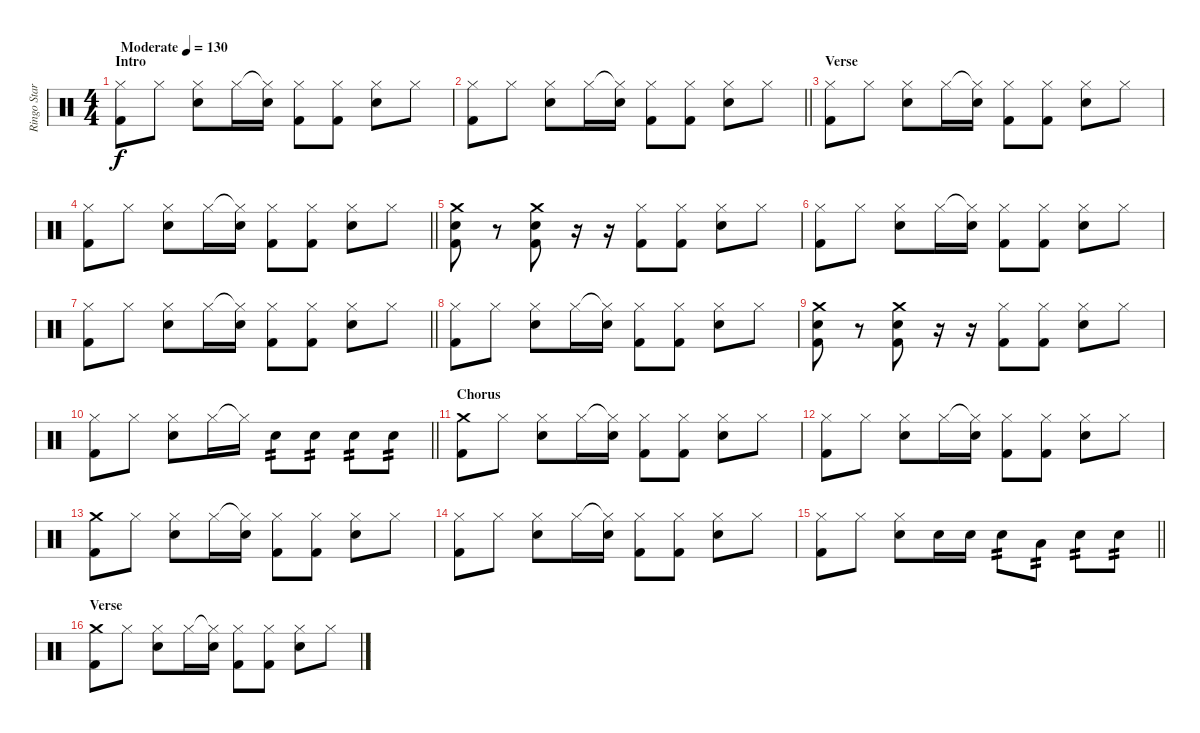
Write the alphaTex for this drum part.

\track ("Ringo Starr" "Ringo Star") {instrument percussion}
\staff {score}
\articulation defaults
\ts (4 4)
\section ("" "Intro")
\tempo (130 "Moderate")
\clef neutral
\ks c
("Hi-Hat (closed)" "Kick (hit) 2").8{dy f} "Hi-Hat (closed)".8 ("Hi-Hat (closed)" "Snare (hit) 2").8 "Hi-Hat (closed)".16 ("Hi-Hat (closed)"{t} "Snare (hit) 2").16 ("Hi-Hat (closed)" "Kick (hit) 2").8 ("Hi-Hat (closed)" "Kick (hit) 2").8 ("Hi-Hat (closed)" "Snare (hit) 2").8 "Hi-Hat (closed)".8 |
\barLineRight lightlight
("Hi-Hat (closed)" "Kick (hit) 2").8 "Hi-Hat (closed)".8 ("Hi-Hat (closed)" "Snare (hit) 2").8 "Hi-Hat (closed)".16 ("Hi-Hat (closed)"{t} "Snare (hit) 2").16 ("Hi-Hat (closed)" "Kick (hit) 2").8 ("Hi-Hat (closed)" "Kick (hit) 2").8 ("Hi-Hat (closed)" "Snare (hit) 2").8 "Hi-Hat (closed)".8 |
\section ("" "Verse")
("Hi-Hat (closed)" "Kick (hit) 2").8 "Hi-Hat (closed)".8 ("Hi-Hat (closed)" "Snare (hit) 2").8 "Hi-Hat (closed)".16 ("Hi-Hat (closed)"{t} "Snare (hit) 2").16 ("Hi-Hat (closed)" "Kick (hit) 2").8 ("Hi-Hat (closed)" "Kick (hit) 2").8 ("Hi-Hat (closed)" "Snare (hit) 2").8 "Hi-Hat (closed)".8 |
\barLineRight lightlight
("Hi-Hat (closed)" "Kick (hit) 2").8 "Hi-Hat (closed)".8 ("Hi-Hat (closed)" "Snare (hit) 2").8 "Hi-Hat (closed)".16 ("Hi-Hat (closed)"{t} "Snare (hit) 2").16 ("Hi-Hat (closed)" "Kick (hit) 2").8 ("Hi-Hat (closed)" "Kick (hit) 2").8 ("Hi-Hat (closed)" "Snare (hit) 2").8 "Hi-Hat (closed)".8 |
("Crash medium (hit)" "Snare (hit) 2" "Kick (hit) 2").8 r.8 ("Crash medium (hit)" "Snare (hit) 2" "Kick (hit) 2").8 r.16 r.16 ("Hi-Hat (closed)" "Kick (hit) 2").8 ("Hi-Hat (closed)" "Kick (hit) 2").8 ("Hi-Hat (closed)" "Snare (hit) 2").8 "Hi-Hat (closed)".8 |
("Hi-Hat (closed)" "Kick (hit) 2").8 "Hi-Hat (closed)".8 ("Hi-Hat (closed)" "Snare (hit) 2").8 "Hi-Hat (closed)".16 ("Hi-Hat (closed)"{t} "Snare (hit) 2").16 ("Hi-Hat (closed)" "Kick (hit) 2").8 ("Hi-Hat (closed)" "Kick (hit) 2").8 ("Hi-Hat (closed)" "Snare (hit) 2").8 "Hi-Hat (closed)".8 |
\barLineRight lightlight
("Hi-Hat (closed)" "Kick (hit) 2").8 "Hi-Hat (closed)".8 ("Hi-Hat (closed)" "Snare (hit) 2").8 "Hi-Hat (closed)".16 ("Hi-Hat (closed)"{t} "Snare (hit) 2").16 ("Hi-Hat (closed)" "Kick (hit) 2").8 ("Hi-Hat (closed)" "Kick (hit) 2").8 ("Hi-Hat (closed)" "Snare (hit) 2").8 "Hi-Hat (closed)".8 |
("Hi-Hat (closed)" "Kick (hit) 2").8 "Hi-Hat (closed)".8 ("Hi-Hat (closed)" "Snare (hit) 2").8 "Hi-Hat (closed)".16 ("Hi-Hat (closed)"{t} "Snare (hit) 2").16 ("Hi-Hat (closed)" "Kick (hit) 2").8 ("Hi-Hat (closed)" "Kick (hit) 2").8 ("Hi-Hat (closed)" "Snare (hit) 2").8 "Hi-Hat (closed)".8 |
("Crash medium (hit)" "Snare (hit) 2" "Kick (hit) 2").8 r.8 ("Crash medium (hit)" "Snare (hit) 2" "Kick (hit) 2").8 r.16 r.16 ("Hi-Hat (closed)" "Kick (hit) 2").8 ("Hi-Hat (closed)" "Kick (hit) 2").8 ("Hi-Hat (closed)" "Snare (hit) 2").8 "Hi-Hat (closed)".8 |
\barLineRight lightlight
("Hi-Hat (closed)" "Kick (hit) 2").8 "Hi-Hat (closed)".8 ("Hi-Hat (closed)" "Snare (hit) 2").8 "Hi-Hat (closed)".16 "Hi-Hat (closed)"{t}.16 "Snare (hit) 2".8{tp 2} "Snare (hit) 2".8{tp 2} "Snare (hit) 2".8{tp 2} "Snare (hit) 2".8{tp 2} |
\section ("" "Chorus")
("Crash medium (hit)" "Kick (hit) 2").8 "Hi-Hat (closed)".8 ("Hi-Hat (closed)" "Snare (hit) 2").8 "Hi-Hat (closed)".16 ("Hi-Hat (closed)"{t} "Snare (hit) 2").16 ("Hi-Hat (closed)" "Kick (hit) 2").8 ("Hi-Hat (closed)" "Kick (hit) 2").8 ("Hi-Hat (closed)" "Snare (hit) 2").8 "Hi-Hat (closed)".8 |
("Hi-Hat (closed)" "Kick (hit) 2").8 "Hi-Hat (closed)".8 ("Hi-Hat (closed)" "Snare (hit) 2").8 "Hi-Hat (closed)".16 ("Hi-Hat (closed)"{t} "Snare (hit) 2").16 ("Hi-Hat (closed)" "Kick (hit) 2").8 ("Hi-Hat (closed)" "Kick (hit) 2").8 ("Hi-Hat (closed)" "Snare (hit) 2").8 "Hi-Hat (closed)".8 |
("Crash medium (hit)" "Kick (hit) 2").8 "Hi-Hat (closed)".8 ("Hi-Hat (closed)" "Snare (hit) 2").8 "Hi-Hat (closed)".16 ("Hi-Hat (closed)"{t} "Snare (hit) 2").16 ("Hi-Hat (closed)" "Kick (hit) 2").8 ("Hi-Hat (closed)" "Kick (hit) 2").8 ("Hi-Hat (closed)" "Snare (hit) 2").8 "Hi-Hat (closed)".8 |
("Hi-Hat (closed)" "Kick (hit) 2").8 "Hi-Hat (closed)".8 ("Hi-Hat (closed)" "Snare (hit) 2").8 "Hi-Hat (closed)".16 ("Hi-Hat (closed)"{t} "Snare (hit) 2").16 ("Hi-Hat (closed)" "Kick (hit) 2").8 ("Hi-Hat (closed)" "Kick (hit) 2").8 ("Hi-Hat (closed)" "Snare (hit) 2").8 "Hi-Hat (closed)".8 |
\barLineRight lightlight
("Hi-Hat (closed)" "Kick (hit) 2").8 "Hi-Hat (closed)".8 ("Hi-Hat (closed)" "Snare (hit) 2").8 "Snare (hit) 2".16 "Snare (hit) 2".16 "Snare (hit) 2".8{tp 2} "Low Tom (hit)".8{tp 2} "Snare (hit) 2".8{tp 2} "Snare (hit) 2".8{tp 2} |
\section ("" "Verse")
("Crash medium (hit)" "Kick (hit) 2").8 "Hi-Hat (closed)".8 ("Hi-Hat (closed)" "Snare (hit) 2").8 "Hi-Hat (closed)".16 ("Hi-Hat (closed)"{t} "Snare (hit) 2").16 ("Hi-Hat (closed)" "Kick (hit) 2").8 ("Hi-Hat (closed)" "Kick (hit) 2").8 ("Hi-Hat (closed)" "Snare (hit) 2").8 "Hi-Hat (closed)".8
